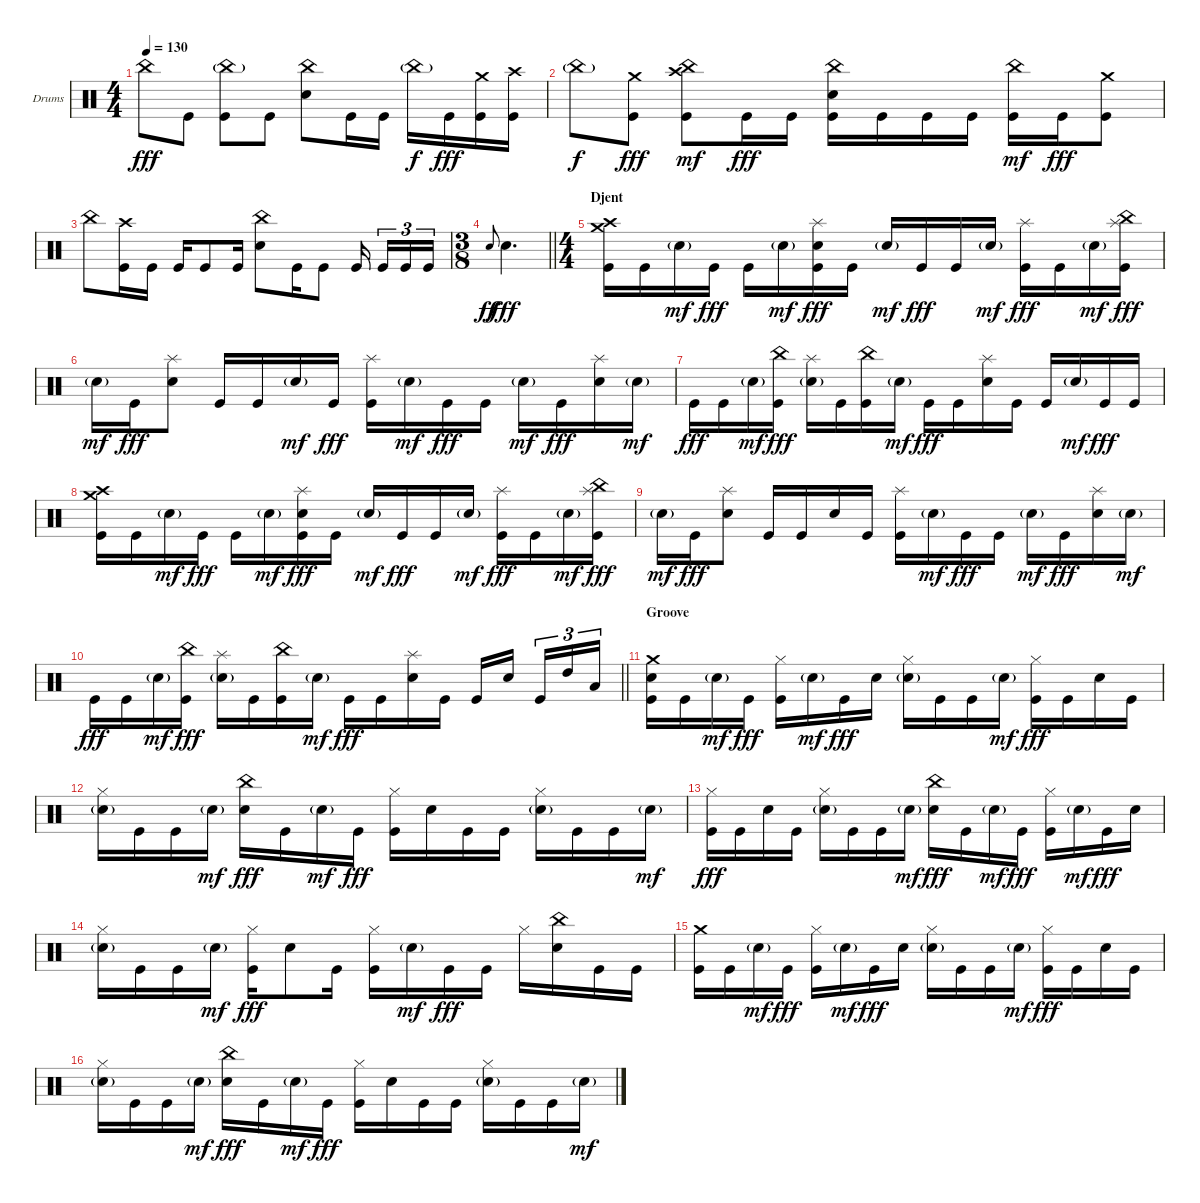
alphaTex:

\bracketExtendMode groupsimilarinstruments
\firstSystemTrackNameOrientation horizontal
\otherSystemsTrackNameOrientation horizontal
\track ("Drumkit" "Drums") {instrument percussion}
\staff {score}
\articulation defaults
\ts (4 4)
\tempo 130
\clef neutral
\ks c "China (hit)".8{dy fff} "Kick (hit)".8
("China (hit)"{g} "Kick (hit)").8 "Kick (hit)".8 ("China (hit)" "Snare (hit) 2").8 "Kick (hit)".16 "Kick (hit)".16 "China (hit)"{g}.16{dy f} "Kick (hit)".16{dy fff} ("Crash medium (hit)" "Kick (hit)").16 ("Crash high (hit)" "Kick (hit)").16 |
"China (hit)"{g}.8{dy f} ("Crash medium (hit)" "Kick (hit)").8{dy fff} ("China (hit)" "Crash high (hit)" "Kick (hit)").8{dy mf} "Kick (hit)".16{dy fff} "Kick (hit)".16 ("China (hit)" "Snare (hit) 2" "Kick (hit)").16 "Kick (hit)".16 "Kick (hit)".16 "Kick (hit)".16 ("China (hit)" "Kick (hit)").16{dy mf} "Kick (hit)".16{dy fff} ("Crash medium (hit)" "Kick (hit)").8 |
"China (hit)".8 ("Crash high (hit)" "Kick (hit)").16 "Kick (hit)".16 "Kick (hit)".16 "Kick (hit)".8 "Kick (hit)".16 ("China (hit)" "Snare (hit) 2").8 "Kick (hit)".16 "Kick (hit)".8 "Kick (hit)".16 "Kick (hit)".16{tu (3 2)} "Kick (hit)".16{tu (3 2)} "Kick (hit)".16{tu (3 2)} |
\ts (3 8)
\beaming (8 3)
\barLineRight lightlight "Snare (hit) 2".8{gr onbeat dy ff} "Snare (hit) 2".4{d dy fff}
|
\ts (4 4)
\beaming (8 2 2 2 2)
\section ("" "Djent")
("Crash medium (hit)" "Crash high (hit)" "Kick (hit)").16 "Kick (hit)".16 "Snare (hit) 2"{g}.16{dy mf} "Kick (hit)".16{dy fff} "Kick (hit)".16 "Snare (hit) 2"{g}.16{dy mf} ("Splash (hit)" "Snare (hit) 2" "Kick (hit)").16{dy fff} "Kick (hit)".16 "Snare (hit) 2"{g}.16{dy mf} "Kick (hit)".16{dy fff} "Kick (hit)".16 "Snare (hit) 2"{g}.16{dy mf} ("Splash (hit)" "Kick (hit)").16{dy fff} "Kick (hit)".16 "Snare (hit) 2"{g}.16{dy mf} ("China (hit)" "Splash (hit)" "Kick (hit)").16{dy fff} |
"Snare (hit) 2"{g}.16{dy mf} "Kick (hit)".16{dy fff} ("Splash (hit)" "Snare (hit) 2").8 "Kick (hit)".16 "Kick (hit)".16 "Snare (hit) 2"{g}.16{dy mf} "Kick (hit)".16{dy fff} ("Splash (hit)" "Kick (hit)").16 "Snare (hit) 2"{g}.16{dy mf} "Kick (hit)".16{dy fff} "Kick (hit)".16 "Snare (hit) 2"{g}.16{dy mf} "Kick (hit)".16{dy fff} ("Splash (hit)" "Snare (hit) 2").16 "Snare (hit) 2"{g}.16{dy mf} |
"Kick (hit)".16{dy fff} "Kick (hit)".16 "Snare (hit) 2"{g}.16{dy mf} ("China (hit)" "Kick (hit)").16{dy fff} ("Splash (hit)" "Snare (hit) 2"{g}).16 "Kick (hit)".16 ("China (hit)" "Kick (hit)").16 "Snare (hit) 2"{g}.16{dy mf} "Kick (hit)".16{dy fff} "Kick (hit)".16 ("Splash (hit)" "Snare (hit) 2").16 "Kick (hit)".16 "Kick (hit)".16 "Snare (hit) 2"{g}.16{dy mf} "Kick (hit)".16{dy fff} "Kick (hit)".16 |
("Crash medium (hit)" "Crash high (hit)" "Kick (hit)").16 "Kick (hit)".16 "Snare (hit) 2"{g}.16{dy mf} "Kick (hit)".16{dy fff} "Kick (hit)".16 "Snare (hit) 2"{g}.16{dy mf} ("Splash (hit)" "Snare (hit) 2" "Kick (hit)").16{dy fff} "Kick (hit)".16 "Snare (hit) 2"{g}.16{dy mf} "Kick (hit)".16{dy fff} "Kick (hit)".16 "Snare (hit) 2"{g}.16{dy mf} ("Splash (hit)" "Kick (hit)").16{dy fff} "Kick (hit)".16 "Snare (hit) 2"{g}.16{dy mf} ("China (hit)" "Splash (hit)" "Kick (hit)").16{dy fff} |
"Snare (hit) 2"{g}.16{dy mf} "Kick (hit)".16{dy fff} ("Splash (hit)" "Snare (hit) 2").8 "Kick (hit)".16 "Kick (hit)".16 "Snare (hit) 2".16 "Kick (hit)".16 ("Splash (hit)" "Kick (hit)").16 "Snare (hit) 2"{g}.16{dy mf} "Kick (hit)".16{dy fff} "Kick (hit)".16 "Snare (hit) 2"{g}.16{dy mf} "Kick (hit)".16{dy fff} ("Splash (hit)" "Snare (hit) 2").16 "Snare (hit) 2"{g}.16{dy mf} |
\barLineRight lightlight "Kick (hit)".16{dy fff} "Kick (hit)".16 "Snare (hit) 2"{g}.16{dy mf}
("China (hit)" "Kick (hit)").16{dy fff} ("Splash (hit)" "Snare (hit) 2"{g}).16 "Kick (hit)".16 ("China (hit)" "Kick (hit)").16 "Snare (hit) 2"{g}.16{dy mf} "Kick (hit)".16{dy fff} "Kick (hit)".16 ("Splash (hit)" "Snare (hit) 2").16 "Kick (hit)".16 "Kick (hit)".16 "Snare (hit) 2".16 "Kick (hit)".16{tu (3 2)} "High Tom (hit)".16{tu (3 2)} "Low Tom (hit)".16{tu (3 2)} |
\section ("" "Groove")
("Crash medium (hit)" "Snare (hit) 2" "Kick (hit)").16 "Kick (hit)".16 "Snare (hit) 2"{g}.16{dy mf} "Kick (hit)".16{dy fff} ("Hi-Hat (closed)" "Kick (hit)").16 "Snare (hit) 2"{g}.16{dy mf} "Kick (hit)".16{dy fff} "Snare (hit) 2".16 ("Hi-Hat (closed)" "Snare (hit) 2"{g}).16 "Kick (hit)".16 "Kick (hit)".16 "Snare (hit) 2"{g}.16{dy mf} ("Hi-Hat (closed)" "Kick (hit)").16{dy fff} "Kick (hit)".16 "Snare (hit) 2".16 "Kick (hit)".16 |
("Hi-Hat (closed)" "Snare (hit) 2"{g}).16 "Kick (hit)".16 "Kick (hit)".16 "Snare (hit) 2"{g}.16{dy mf} ("China (hit)" "Snare (hit) 2").16{dy fff} "Kick (hit)".16 "Snare (hit) 2"{g}.16{dy mf} "Kick (hit)".16{dy fff} ("Hi-Hat (closed)" "Kick (hit)").16 "Snare (hit) 2".16 "Kick (hit)".16 "Kick (hit)".16 ("Hi-Hat (closed)" "Snare (hit) 2"{g}).16 "Kick (hit)".16 "Kick (hit)".16 "Snare (hit) 2"{g}.16{dy mf} |
("Hi-Hat (closed)" "Kick (hit)").16{dy fff} "Kick (hit)".16 "Snare (hit) 2".16 "Kick (hit)".16 ("Hi-Hat (closed)" "Snare (hit) 2"{g}).16 "Kick (hit)".16 "Kick (hit)".16 "Snare (hit) 2"{g}.16{dy mf} ("China (hit)" "Snare (hit) 2").16{dy fff} "Kick (hit)".16 "Snare (hit) 2"{g}.16{dy mf} "Kick (hit)".16{dy fff} ("Hi-Hat (closed)" "Kick (hit)").16 "Snare (hit) 2"{g}.16{dy mf} "Kick (hit)".16{dy fff} "Snare (hit) 2".16 |
("Hi-Hat (closed)" "Snare (hit) 2"{g}).16 "Kick (hit)".16 "Kick (hit)".16 "Snare (hit) 2"{g}.16{dy mf} ("Hi-Hat (closed)" "Kick (hit)").16{dy fff} "Snare (hit) 2".8 "Kick (hit)".16 ("Hi-Hat (closed)" "Kick (hit)").16 "Snare (hit) 2"{g}.16{dy mf} "Kick (hit)".16{dy fff} "Kick (hit)".16 "Hi-Hat (closed)".16 ("China (hit)" "Snare (hit) 2").16 "Kick (hit)".16 "Kick (hit)".16 |
("Crash medium (hit)" "Kick (hit)").16 "Kick (hit)".16 "Snare (hit) 2"{g}.16{dy mf} "Kick (hit)".16{dy fff} ("Hi-Hat (closed)" "Kick (hit)").16 "Snare (hit) 2"{g}.16{dy mf} "Kick (hit)".16{dy fff} "Snare (hit) 2".16 ("Hi-Hat (closed)" "Snare (hit) 2"{g}).16 "Kick (hit)".16 "Kick (hit)".16 "Snare (hit) 2"{g}.16{dy mf} ("Hi-Hat (closed)" "Kick (hit)").16{dy fff} "Kick (hit)".16 "Snare (hit) 2".16 "Kick (hit)".16 |
("Hi-Hat (closed)" "Snare (hit) 2"{g}).16 "Kick (hit)".16 "Kick (hit)".16 "Snare (hit) 2"{g}.16{dy mf} ("China (hit)" "Snare (hit) 2").16{dy fff} "Kick (hit)".16 "Snare (hit) 2"{g}.16{dy mf} "Kick (hit)".16{dy fff} ("Hi-Hat (closed)" "Kick (hit)").16 "Snare (hit) 2".16 "Kick (hit)".16 "Kick (hit)".16 ("Hi-Hat (closed)" "Snare (hit) 2"{g}).16 "Kick (hit)".16 "Kick (hit)".16 "Snare (hit) 2"{g}.16{dy mf}
